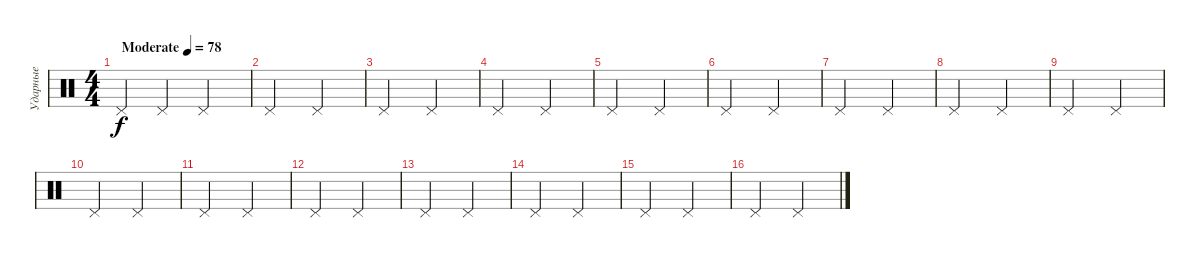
\track ("Ударные" "Ударные") {mute instrument percussion}
\staff {score}
\articulation defaults
\ts (4 4)
\tempo (78 "Moderate")
\clef neutral
\ks c "Pedal Hi-Hat (hit)".4{dy f} "Pedal Hi-Hat (hit)".4 "Pedal Hi-Hat (hit)".2
|
"Pedal Hi-Hat (hit)".2 "Pedal Hi-Hat (hit)".2 |
"Pedal Hi-Hat (hit)".2 "Pedal Hi-Hat (hit)".2 |
"Pedal Hi-Hat (hit)".2 "Pedal Hi-Hat (hit)".2 |
"Pedal Hi-Hat (hit)".2 "Pedal Hi-Hat (hit)".2 |
"Pedal Hi-Hat (hit)".2 "Pedal Hi-Hat (hit)".2 |
"Pedal Hi-Hat (hit)".2 "Pedal Hi-Hat (hit)".2 |
"Pedal Hi-Hat (hit)".2 "Pedal Hi-Hat (hit)".2 |
"Pedal Hi-Hat (hit)".2 "Pedal Hi-Hat (hit)".2 |
"Pedal Hi-Hat (hit)".2 "Pedal Hi-Hat (hit)".2 |
"Pedal Hi-Hat (hit)".2 "Pedal Hi-Hat (hit)".2 |
"Pedal Hi-Hat (hit)".2 "Pedal Hi-Hat (hit)".2 |
"Pedal Hi-Hat (hit)".2 "Pedal Hi-Hat (hit)".2 |
"Pedal Hi-Hat (hit)".2 "Pedal Hi-Hat (hit)".2 |
"Pedal Hi-Hat (hit)".2 "Pedal Hi-Hat (hit)".2 |
"Pedal Hi-Hat (hit)".2 "Pedal Hi-Hat (hit)".2
